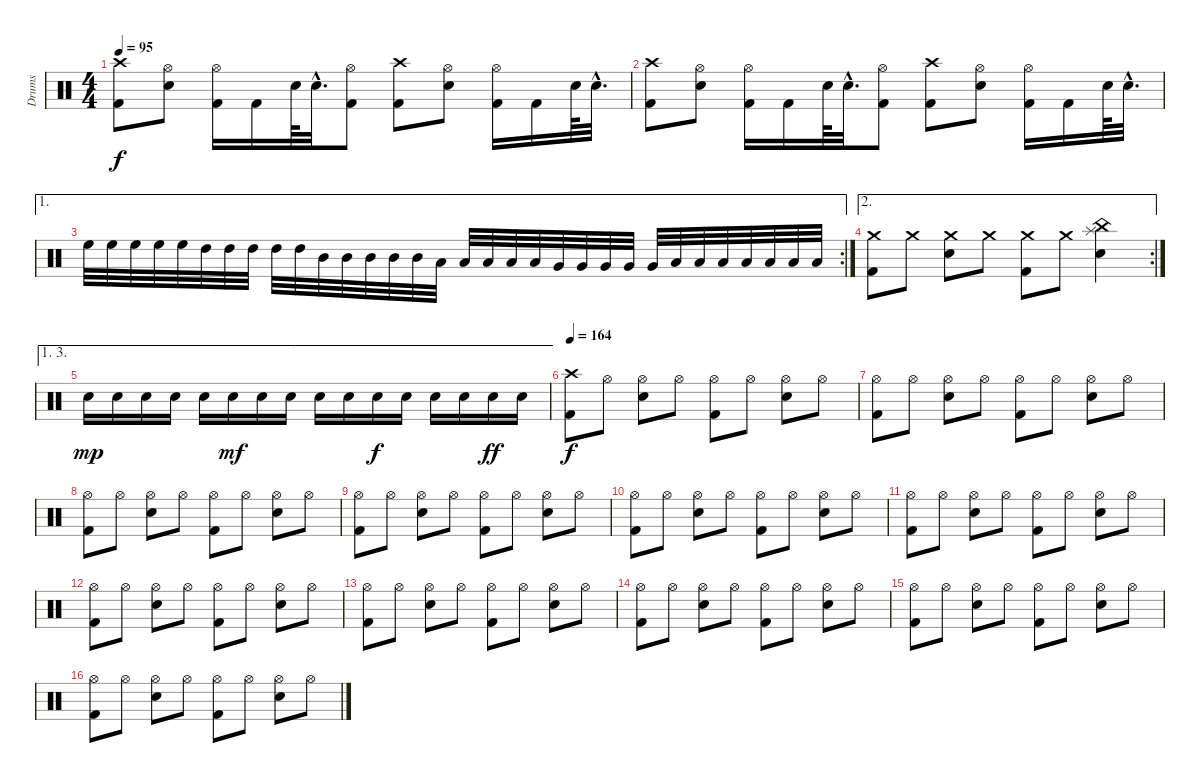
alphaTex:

\track ("Drums" "Drums") {instrument percussion}
\staff {score}
\articulation defaults
\ts (4 4)
\tempo 95
\clef neutral
\ks c
("Crash high (hit)" "Kick (hit) 2").8{dy f} ("Hi-Hat (open)" "Snare (hit) 2").8 ("Hi-Hat (open)" "Kick (hit) 2").16 "Kick (hit) 2".16 "Snare (hit) 2".64 "Snare (hit) 2"{hac}.32{d} ("Hi-Hat (open)" "Kick (hit) 2").8 ("Crash high (hit)" "Kick (hit) 2").8 ("Hi-Hat (open)" "Snare (hit) 2").8 ("Hi-Hat (open)" "Kick (hit) 2").16 "Kick (hit) 2".16 "Snare (hit) 2".64 "Snare (hit) 2"{hac}.32{d} |
("Crash high (hit)" "Kick (hit) 2").8 ("Hi-Hat (open)" "Snare (hit) 2").8 ("Hi-Hat (open)" "Kick (hit) 2").16 "Kick (hit) 2".16 "Snare (hit) 2".64 "Snare (hit) 2"{hac}.32{d} ("Hi-Hat (open)" "Kick (hit) 2").8 ("Crash high (hit)" "Kick (hit) 2").8 ("Hi-Hat (open)" "Snare (hit) 2").8 ("Hi-Hat (open)" "Kick (hit) 2").16 "Kick (hit) 2".16 "Snare (hit) 2".64 "Snare (hit) 2"{hac}.32{d} |
\ae 1
\rc 2 "High Floor Tom (hit)".32 "High Floor Tom (hit)".32 "High Floor Tom (hit)".32 "High Floor Tom (hit)".32 "High Floor Tom (hit)".32 "High Tom (hit)".32 "High Tom (hit)".32 "High Tom (hit)".32 "High Tom (hit)".32 "High Tom (hit)".32 "Mid Tom (hit)".32 "Mid Tom (hit)".32 "Mid Tom (hit)".32 "Mid Tom (hit)".32 "Mid Tom (hit)".32 "Low Tom (hit)".32 "Low Tom (hit)".32 "Low Tom (hit)".32 "Low Tom (hit)".32 "Low Tom (hit)".32 "Very Low Tom (hit)".32 "Very Low Tom (hit)".32 "Very Low Tom (hit)".32 "Very Low Tom (hit)".32 "Very Low Tom (hit)".32 "Low Floor Tom (hit)".32 "Low Floor Tom (hit)".32 "Low Floor Tom (hit)".32 "Low Floor Tom (hit)".32 "Low Floor Tom (hit)".32 "Low Floor Tom (hit)".32 "Low Floor Tom (hit)".32
|
\ae 2
\rc 2
("Crash medium (hit)" "Kick (hit) 2").8 "Crash medium (hit)".8 ("Crash medium (hit)" "Snare (hit) 2").8 "Crash medium (hit)".8 ("Crash medium (hit)" "Kick (hit) 2").8 "Crash medium (hit)".8 ("Splash (hit)" "China (hit)" "Snare (hit) 2").4 |
\ae (1 3)
"Snare (hit) 2".16{dy mp} "Snare (hit) 2".16 "Snare (hit) 2".16 "Snare (hit) 2".16 "Snare (hit) 2".16 "Snare (hit) 2".16{dy mf} "Snare (hit) 2".16 "Snare (hit) 2".16 "Snare (hit) 2".16 "Snare (hit) 2".16 "Snare (hit) 2".16{dy f} "Snare (hit) 2".16 "Snare (hit) 2".16 "Snare (hit) 2".16 "Snare (hit) 2".16{dy ff} "Snare (hit) 2".16 |
\tempo 164
("Crash high (hit)" "Kick (hit) 2").8{dy f} "Hi-Hat (open)".8 ("Hi-Hat (open)" "Snare (hit) 2").8 "Hi-Hat (open)".8 ("Hi-Hat (open)" "Kick (hit) 2").8 "Hi-Hat (open)".8 ("Hi-Hat (open)" "Snare (hit) 2").8 "Hi-Hat (open)".8 |
("Hi-Hat (open)" "Kick (hit) 2").8 "Hi-Hat (open)".8 ("Hi-Hat (open)" "Snare (hit) 2").8 "Hi-Hat (open)".8 ("Hi-Hat (open)" "Kick (hit) 2").8 "Hi-Hat (open)".8 ("Hi-Hat (open)" "Snare (hit) 2").8 "Hi-Hat (open)".8 |
("Hi-Hat (open)" "Kick (hit) 2").8 "Hi-Hat (open)".8 ("Hi-Hat (open)" "Snare (hit) 2").8 "Hi-Hat (open)".8 ("Hi-Hat (open)" "Kick (hit) 2").8 "Hi-Hat (open)".8 ("Hi-Hat (open)" "Snare (hit) 2").8 "Hi-Hat (open)".8 |
("Hi-Hat (open)" "Kick (hit) 2").8 "Hi-Hat (open)".8 ("Hi-Hat (open)" "Snare (hit) 2").8 "Hi-Hat (open)".8 ("Hi-Hat (open)" "Kick (hit) 2").8 "Hi-Hat (open)".8 ("Hi-Hat (open)" "Snare (hit) 2").8 "Hi-Hat (open)".8 |
("Hi-Hat (open)" "Kick (hit) 2").8 "Hi-Hat (open)".8 ("Hi-Hat (open)" "Snare (hit) 2").8 "Hi-Hat (open)".8 ("Hi-Hat (open)" "Kick (hit) 2").8 "Hi-Hat (open)".8 ("Hi-Hat (open)" "Snare (hit) 2").8 "Hi-Hat (open)".8 |
("Hi-Hat (open)" "Kick (hit) 2").8 "Hi-Hat (open)".8 ("Hi-Hat (open)" "Snare (hit) 2").8 "Hi-Hat (open)".8 ("Hi-Hat (open)" "Kick (hit) 2").8 "Hi-Hat (open)".8 ("Hi-Hat (open)" "Snare (hit) 2").8 "Hi-Hat (open)".8 |
("Hi-Hat (open)" "Kick (hit) 2").8 "Hi-Hat (open)".8 ("Hi-Hat (open)" "Snare (hit) 2").8 "Hi-Hat (open)".8 ("Hi-Hat (open)" "Kick (hit) 2").8 "Hi-Hat (open)".8 ("Hi-Hat (open)" "Snare (hit) 2").8 "Hi-Hat (open)".8 |
("Hi-Hat (open)" "Kick (hit) 2").8 "Hi-Hat (open)".8 ("Hi-Hat (open)" "Snare (hit) 2").8 "Hi-Hat (open)".8 ("Hi-Hat (open)" "Kick (hit) 2").8 "Hi-Hat (open)".8 ("Hi-Hat (open)" "Snare (hit) 2").8 "Hi-Hat (open)".8 |
("Hi-Hat (open)" "Kick (hit) 2").8 "Hi-Hat (open)".8 ("Hi-Hat (open)" "Snare (hit) 2").8 "Hi-Hat (open)".8 ("Hi-Hat (open)" "Kick (hit) 2").8 "Hi-Hat (open)".8 ("Hi-Hat (open)" "Snare (hit) 2").8 "Hi-Hat (open)".8 |
("Hi-Hat (open)" "Kick (hit) 2").8 "Hi-Hat (open)".8 ("Hi-Hat (open)" "Snare (hit) 2").8 "Hi-Hat (open)".8 ("Hi-Hat (open)" "Kick (hit) 2").8 "Hi-Hat (open)".8 ("Hi-Hat (open)" "Snare (hit) 2").8 "Hi-Hat (open)".8 |
("Hi-Hat (open)" "Kick (hit) 2").8 "Hi-Hat (open)".8 ("Hi-Hat (open)" "Snare (hit) 2").8 "Hi-Hat (open)".8 ("Hi-Hat (open)" "Kick (hit) 2").8 "Hi-Hat (open)".8 ("Hi-Hat (open)" "Snare (hit) 2").8 "Hi-Hat (open)".8
